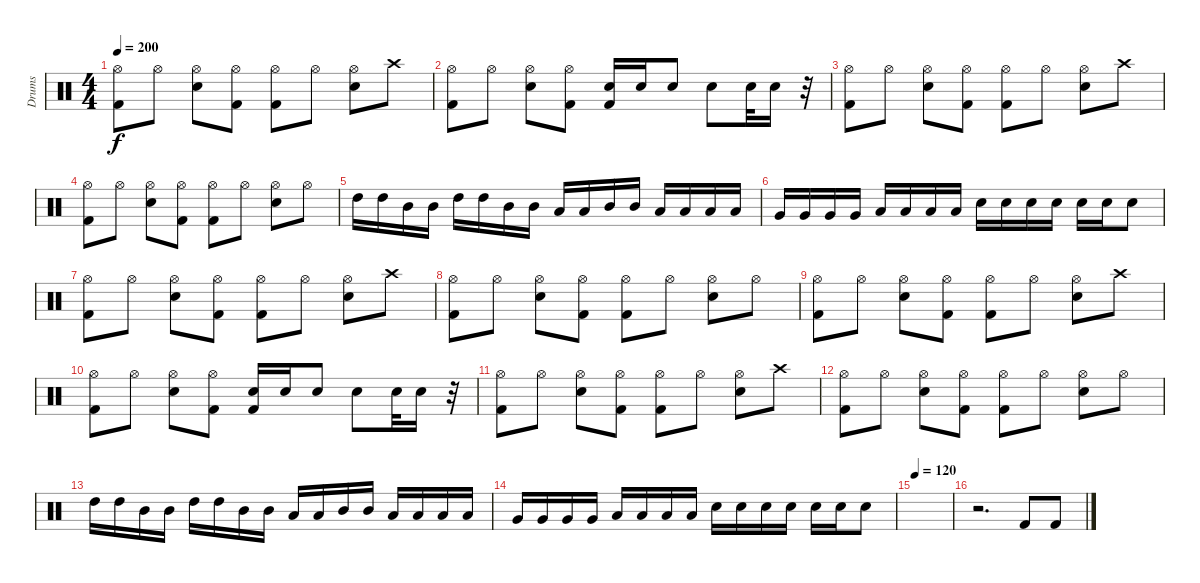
\track ("Drums" "Drums") {instrument percussion}
\staff {score}
\articulation defaults
\ts (4 4)
\tempo 200
\clef neutral
\ks c
("Hi-Hat (open)" "Kick (hit) 2").8{dy f} "Hi-Hat (open)".8 ("Hi-Hat (open)" "Electric Snare (hit)").8 ("Hi-Hat (open)" "Kick (hit) 2").8 ("Hi-Hat (open)" "Kick (hit) 2").8 "Hi-Hat (open)".8 ("Hi-Hat (open)" "Electric Snare (hit)").8 "Crash high (hit)".8 |
("Hi-Hat (open)" "Kick (hit) 2").8 "Hi-Hat (open)".8 ("Hi-Hat (open)" "Electric Snare (hit)").8 ("Hi-Hat (open)" "Kick (hit) 2").8 ("Electric Snare (hit)" "Kick (hit) 2").16 "Electric Snare (hit)".16 "Electric Snare (hit)".8 "Electric Snare (hit)".8 "Electric Snare (hit)".32 "Electric Snare (hit)".16 r.32 |
("Hi-Hat (open)" "Kick (hit) 2").8 "Hi-Hat (open)".8 ("Hi-Hat (open)" "Electric Snare (hit)").8 ("Hi-Hat (open)" "Kick (hit) 2").8 ("Hi-Hat (open)" "Kick (hit) 2").8 "Hi-Hat (open)".8 ("Hi-Hat (open)" "Electric Snare (hit)").8 "Crash high (hit)".8 |
("Hi-Hat (open)" "Kick (hit) 2").8 "Hi-Hat (open)".8 ("Hi-Hat (open)" "Electric Snare (hit)").8 ("Hi-Hat (open)" "Kick (hit) 2").8 ("Hi-Hat (open)" "Kick (hit) 2").8 "Hi-Hat (open)".8 ("Hi-Hat (open)" "Electric Snare (hit)").8 "Hi-Hat (open)".8 |
"High Tom (hit)".16 "High Tom (hit)".16 "Mid Tom (hit)".16 "Mid Tom (hit)".16 "High Tom (hit)".16 "High Tom (hit)".16 "Mid Tom (hit)".16 "Mid Tom (hit)".16 "Low Tom (hit)".16 "Low Tom (hit)".16 "Mid Tom (hit)".16 "Mid Tom (hit)".16 "Low Tom (hit)".16 "Low Tom (hit)".16 "Low Tom (hit)".16 "Low Tom (hit)".16 |
"Very Low Tom (hit)".16 "Very Low Tom (hit)".16 "Very Low Tom (hit)".16 "Very Low Tom (hit)".16 "Low Floor Tom (hit)".16 "Low Floor Tom (hit)".16 "Low Floor Tom (hit)".16 "Low Floor Tom (hit)".16 "Electric Snare (hit)".16 "Electric Snare (hit)".16 "Electric Snare (hit)".16 "Electric Snare (hit)".16 "Electric Snare (hit)".16 "Electric Snare (hit)".16 "Electric Snare (hit)".8 |
("Hi-Hat (open)" "Kick (hit) 2").8 "Hi-Hat (open)".8 ("Hi-Hat (open)" "Electric Snare (hit)").8 ("Hi-Hat (open)" "Kick (hit) 2").8 ("Hi-Hat (open)" "Kick (hit) 2").8 "Hi-Hat (open)".8 ("Hi-Hat (open)" "Electric Snare (hit)").8 "Crash high (hit)".8 |
("Hi-Hat (open)" "Kick (hit) 2").8 "Hi-Hat (open)".8 ("Hi-Hat (open)" "Electric Snare (hit)").8 ("Hi-Hat (open)" "Kick (hit) 2").8 ("Hi-Hat (open)" "Kick (hit) 2").8 "Hi-Hat (open)".8 ("Hi-Hat (open)" "Electric Snare (hit)").8 "Hi-Hat (open)".8 |
("Hi-Hat (open)" "Kick (hit) 2").8 "Hi-Hat (open)".8 ("Hi-Hat (open)" "Electric Snare (hit)").8 ("Hi-Hat (open)" "Kick (hit) 2").8 ("Hi-Hat (open)" "Kick (hit) 2").8 "Hi-Hat (open)".8 ("Hi-Hat (open)" "Electric Snare (hit)").8 "Crash high (hit)".8 |
("Hi-Hat (open)" "Kick (hit) 2").8 "Hi-Hat (open)".8 ("Hi-Hat (open)" "Electric Snare (hit)").8 ("Hi-Hat (open)" "Kick (hit) 2").8 ("Electric Snare (hit)" "Kick (hit) 2").16 "Electric Snare (hit)".16 "Electric Snare (hit)".8 "Electric Snare (hit)".8 "Electric Snare (hit)".32 "Electric Snare (hit)".16 r.32 |
("Hi-Hat (open)" "Kick (hit) 2").8 "Hi-Hat (open)".8 ("Hi-Hat (open)" "Electric Snare (hit)").8 ("Hi-Hat (open)" "Kick (hit) 2").8 ("Hi-Hat (open)" "Kick (hit) 2").8 "Hi-Hat (open)".8 ("Hi-Hat (open)" "Electric Snare (hit)").8 "Crash high (hit)".8 |
("Hi-Hat (open)" "Kick (hit) 2").8 "Hi-Hat (open)".8 ("Hi-Hat (open)" "Electric Snare (hit)").8 ("Hi-Hat (open)" "Kick (hit) 2").8 ("Hi-Hat (open)" "Kick (hit) 2").8 "Hi-Hat (open)".8 ("Hi-Hat (open)" "Electric Snare (hit)").8 "Hi-Hat (open)".8 |
"High Tom (hit)".16 "High Tom (hit)".16 "Mid Tom (hit)".16 "Mid Tom (hit)".16 "High Tom (hit)".16 "High Tom (hit)".16 "Mid Tom (hit)".16 "Mid Tom (hit)".16 "Low Tom (hit)".16 "Low Tom (hit)".16 "Mid Tom (hit)".16 "Mid Tom (hit)".16 "Low Tom (hit)".16 "Low Tom (hit)".16 "Low Tom (hit)".16 "Low Tom (hit)".16 |
"Very Low Tom (hit)".16 "Very Low Tom (hit)".16 "Very Low Tom (hit)".16 "Very Low Tom (hit)".16 "Low Floor Tom (hit)".16 "Low Floor Tom (hit)".16 "Low Floor Tom (hit)".16 "Low Floor Tom (hit)".16 "Electric Snare (hit)".16 "Electric Snare (hit)".16 "Electric Snare (hit)".16 "Electric Snare (hit)".16 "Electric Snare (hit)".16 "Electric Snare (hit)".16 "Electric Snare (hit)".8 |
\tempo 120
|
r.2{d} "Kick (hit) 2".8 "Kick (hit) 2".8
